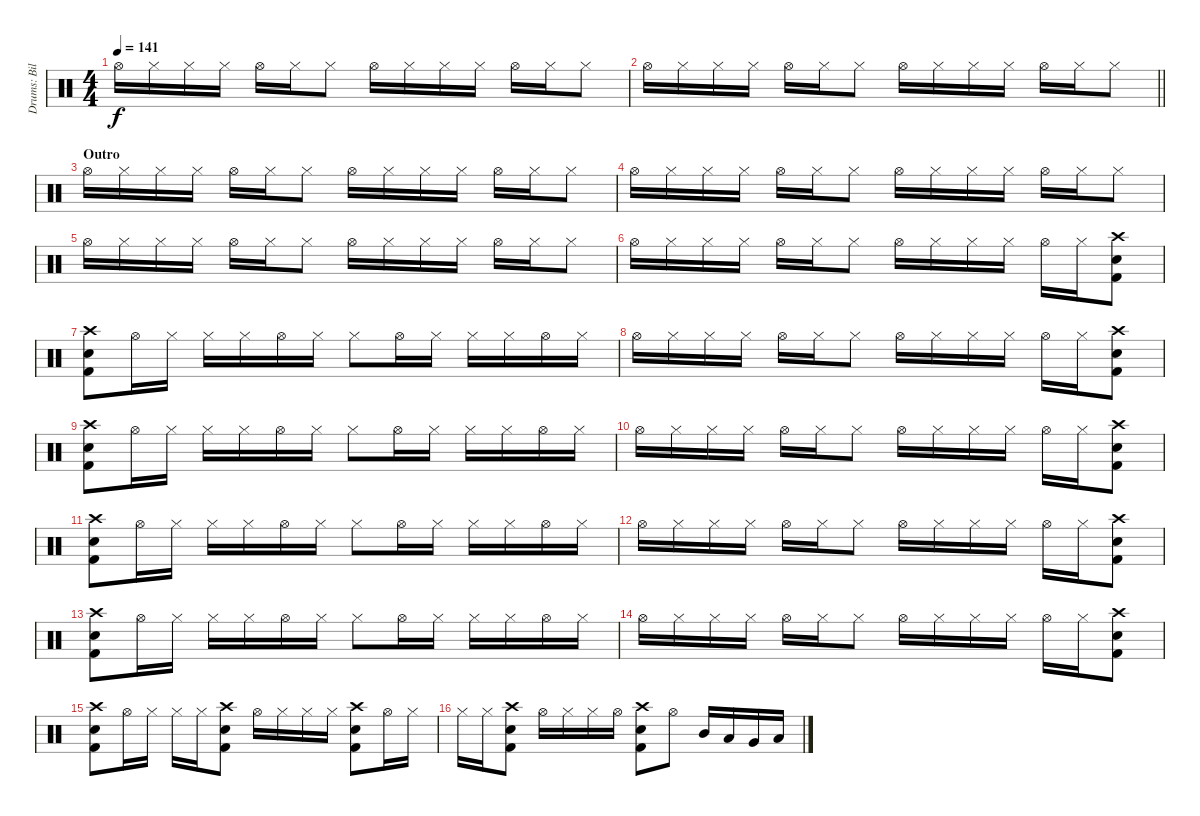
\track ("Drums: Bill" "Drums: Bil") {instrument percussion}
\staff {score}
\articulation defaults
\ts (4 4)
\tempo 141
\clef neutral
\ks c "Hi-Hat (open)".16{dy f} "Hi-Hat (closed)".16 "Hi-Hat (closed)".16 "Hi-Hat (closed)".16 "Hi-Hat (open)".16 "Hi-Hat (closed)".16 "Hi-Hat (closed)".8 "Hi-Hat (open)".16 "Hi-Hat (closed)".16 "Hi-Hat (closed)".16 "Hi-Hat (closed)".16 "Hi-Hat (open)".16 "Hi-Hat (closed)".16 "Hi-Hat (closed)".8
|
\barLineRight lightlight "Hi-Hat (open)".16 "Hi-Hat (closed)".16 "Hi-Hat (closed)".16 "Hi-Hat (closed)".16 "Hi-Hat (open)".16 "Hi-Hat (closed)".16 "Hi-Hat (closed)".8 "Hi-Hat (open)".16 "Hi-Hat (closed)".16 "Hi-Hat (closed)".16 "Hi-Hat (closed)".16 "Hi-Hat (open)".16 "Hi-Hat (closed)".16 "Hi-Hat (closed)".8
|
\section ("" "Outro")
"Hi-Hat (open)".16 "Hi-Hat (closed)".16 "Hi-Hat (closed)".16 "Hi-Hat (closed)".16 "Hi-Hat (open)".16 "Hi-Hat (closed)".16 "Hi-Hat (closed)".8 "Hi-Hat (open)".16 "Hi-Hat (closed)".16 "Hi-Hat (closed)".16 "Hi-Hat (closed)".16 "Hi-Hat (open)".16 "Hi-Hat (closed)".16 "Hi-Hat (closed)".8 |
"Hi-Hat (open)".16 "Hi-Hat (closed)".16 "Hi-Hat (closed)".16 "Hi-Hat (closed)".16 "Hi-Hat (open)".16 "Hi-Hat (closed)".16 "Hi-Hat (closed)".8 "Hi-Hat (open)".16 "Hi-Hat (closed)".16 "Hi-Hat (closed)".16 "Hi-Hat (closed)".16 "Hi-Hat (open)".16 "Hi-Hat (closed)".16 "Hi-Hat (closed)".8 |
"Hi-Hat (open)".16 "Hi-Hat (closed)".16 "Hi-Hat (closed)".16 "Hi-Hat (closed)".16 "Hi-Hat (open)".16 "Hi-Hat (closed)".16 "Hi-Hat (closed)".8 "Hi-Hat (open)".16 "Hi-Hat (closed)".16 "Hi-Hat (closed)".16 "Hi-Hat (closed)".16 "Hi-Hat (open)".16 "Hi-Hat (closed)".16 "Hi-Hat (closed)".8 |
"Hi-Hat (open)".16 "Hi-Hat (closed)".16 "Hi-Hat (closed)".16 "Hi-Hat (closed)".16 "Hi-Hat (open)".16 "Hi-Hat (closed)".16 "Hi-Hat (closed)".8 "Hi-Hat (open)".16 "Hi-Hat (closed)".16 "Hi-Hat (closed)".16 "Hi-Hat (closed)".16 "Hi-Hat (open)".16 "Hi-Hat (closed)".16 ("Crash high (hit)" "Snare (hit) 2" "Kick (hit) 2").8 |
("Crash high (hit)" "Snare (hit) 2" "Kick (hit) 2").8 "Hi-Hat (open)".16 "Hi-Hat (closed)".16 "Hi-Hat (closed)".16 "Hi-Hat (closed)".16 "Hi-Hat (open)".16 "Hi-Hat (closed)".16 "Hi-Hat (closed)".8 "Hi-Hat (open)".16 "Hi-Hat (closed)".16 "Hi-Hat (closed)".16 "Hi-Hat (closed)".16 "Hi-Hat (open)".16 "Hi-Hat (closed)".16 |
"Hi-Hat (open)".16 "Hi-Hat (closed)".16 "Hi-Hat (closed)".16 "Hi-Hat (closed)".16 "Hi-Hat (open)".16 "Hi-Hat (closed)".16 "Hi-Hat (closed)".8 "Hi-Hat (open)".16 "Hi-Hat (closed)".16 "Hi-Hat (closed)".16 "Hi-Hat (closed)".16 "Hi-Hat (open)".16 "Hi-Hat (closed)".16 ("Crash high (hit)" "Snare (hit) 2" "Kick (hit) 2").8 |
("Crash high (hit)" "Snare (hit) 2" "Kick (hit) 2").8 "Hi-Hat (open)".16 "Hi-Hat (closed)".16 "Hi-Hat (closed)".16 "Hi-Hat (closed)".16 "Hi-Hat (open)".16 "Hi-Hat (closed)".16 "Hi-Hat (closed)".8 "Hi-Hat (open)".16 "Hi-Hat (closed)".16 "Hi-Hat (closed)".16 "Hi-Hat (closed)".16 "Hi-Hat (open)".16 "Hi-Hat (closed)".16 |
"Hi-Hat (open)".16 "Hi-Hat (closed)".16 "Hi-Hat (closed)".16 "Hi-Hat (closed)".16 "Hi-Hat (open)".16 "Hi-Hat (closed)".16 "Hi-Hat (closed)".8 "Hi-Hat (open)".16 "Hi-Hat (closed)".16 "Hi-Hat (closed)".16 "Hi-Hat (closed)".16 "Hi-Hat (open)".16 "Hi-Hat (closed)".16 ("Crash high (hit)" "Snare (hit) 2" "Kick (hit) 2").8 |
("Crash high (hit)" "Snare (hit) 2" "Kick (hit) 2").8 "Hi-Hat (open)".16 "Hi-Hat (closed)".16 "Hi-Hat (closed)".16 "Hi-Hat (closed)".16 "Hi-Hat (open)".16 "Hi-Hat (closed)".16 "Hi-Hat (closed)".8 "Hi-Hat (open)".16 "Hi-Hat (closed)".16 "Hi-Hat (closed)".16 "Hi-Hat (closed)".16 "Hi-Hat (open)".16 "Hi-Hat (closed)".16 |
"Hi-Hat (open)".16 "Hi-Hat (closed)".16 "Hi-Hat (closed)".16 "Hi-Hat (closed)".16 "Hi-Hat (open)".16 "Hi-Hat (closed)".16 "Hi-Hat (closed)".8 "Hi-Hat (open)".16 "Hi-Hat (closed)".16 "Hi-Hat (closed)".16 "Hi-Hat (closed)".16 "Hi-Hat (open)".16 "Hi-Hat (closed)".16 ("Crash high (hit)" "Snare (hit) 2" "Kick (hit) 2").8 |
("Crash high (hit)" "Snare (hit) 2" "Kick (hit) 2").8 "Hi-Hat (open)".16 "Hi-Hat (closed)".16 "Hi-Hat (closed)".16 "Hi-Hat (closed)".16 "Hi-Hat (open)".16 "Hi-Hat (closed)".16 "Hi-Hat (closed)".8 "Hi-Hat (open)".16 "Hi-Hat (closed)".16 "Hi-Hat (closed)".16 "Hi-Hat (closed)".16 "Hi-Hat (open)".16 "Hi-Hat (closed)".16 |
"Hi-Hat (open)".16 "Hi-Hat (closed)".16 "Hi-Hat (closed)".16 "Hi-Hat (closed)".16 "Hi-Hat (open)".16 "Hi-Hat (closed)".16 "Hi-Hat (closed)".8 "Hi-Hat (open)".16 "Hi-Hat (closed)".16 "Hi-Hat (closed)".16 "Hi-Hat (closed)".16 "Hi-Hat (open)".16 "Hi-Hat (closed)".16 ("Crash high (hit)" "Snare (hit) 2" "Kick (hit) 2").8 |
("Crash high (hit)" "Snare (hit) 2" "Kick (hit) 2").8 "Hi-Hat (open)".16 "Hi-Hat (closed)".16 "Hi-Hat (closed)".16 "Hi-Hat (closed)".16 ("Crash high (hit)" "Snare (hit) 2" "Kick (hit) 2").8 "Hi-Hat (open)".16 "Hi-Hat (closed)".16 "Hi-Hat (closed)".16 "Hi-Hat (closed)".16 ("Crash high (hit)" "Snare (hit) 2" "Kick (hit) 2").8 "Hi-Hat (open)".16 "Hi-Hat (closed)".16 |
"Hi-Hat (closed)".16 "Hi-Hat (closed)".16 ("Crash high (hit)" "Snare (hit) 2" "Kick (hit) 2").8 "Hi-Hat (open)".16 "Hi-Hat (closed)".16 "Hi-Hat (closed)".16 "Hi-Hat (open)".16 ("Crash high (hit)" "Snare (hit) 2" "Kick (hit) 2").8 "Hi-Hat (open)".8 "Mid Tom (hit)".16 "Low Tom (hit)".16 "Very Low Tom (hit)".16 "Low Floor Tom (hit)".16
